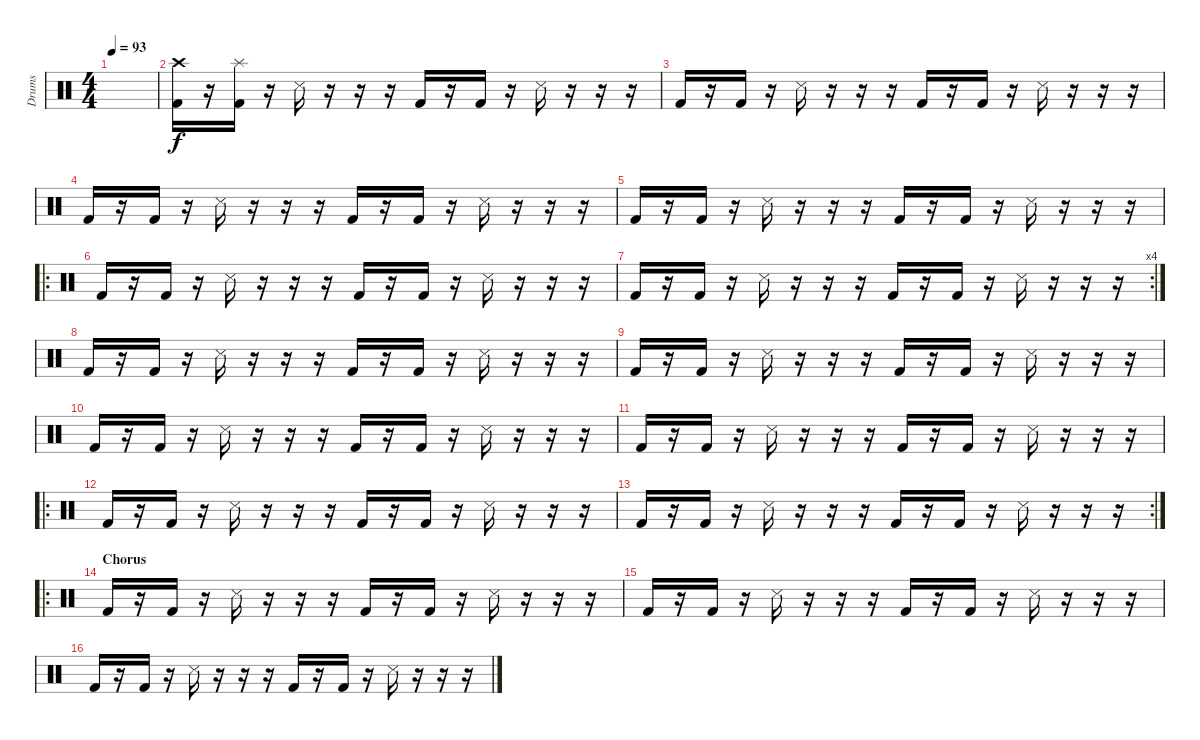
\track ("Drums" "Drums") {instrument percussion}
\staff {score}
\articulation defaults
\ts (4 4)
\tempo 93
\clef neutral
\ks c
|
("Kick (hit) 2" "Crash high (hit)").16 r.16 ("Kick (hit) 2" "Splash (hit)").16 r.16 "Metronome (hit)".16 r.16 r.16 r.16 "Kick (hit) 2".16 r.16 "Kick (hit) 2".16 r.16 "Metronome (hit)".16 r.16 r.16 r.16 |
"Kick (hit) 2".16 r.16 "Kick (hit) 2".16 r.16 "Metronome (hit)".16 r.16 r.16 r.16 "Kick (hit) 2".16 r.16 "Kick (hit) 2".16 r.16 "Metronome (hit)".16 r.16 r.16 r.16 |
"Kick (hit) 2".16 r.16 "Kick (hit) 2".16 r.16 "Metronome (hit)".16 r.16 r.16 r.16 "Kick (hit) 2".16 r.16 "Kick (hit) 2".16 r.16 "Metronome (hit)".16 r.16 r.16 r.16 |
"Kick (hit) 2".16 r.16 "Kick (hit) 2".16 r.16 "Metronome (hit)".16 r.16 r.16 r.16 "Kick (hit) 2".16 r.16 "Kick (hit) 2".16 r.16 "Metronome (hit)".16 r.16 r.16 r.16 |
\ro "Kick (hit) 2".16
r.16 "Kick (hit) 2".16 r.16 "Metronome (hit)".16 r.16 r.16 r.16 "Kick (hit) 2".16 r.16 "Kick (hit) 2".16 r.16 "Metronome (hit)".16 r.16 r.16 r.16 |
\rc 4 "Kick (hit) 2".16
r.16 "Kick (hit) 2".16 r.16 "Metronome (hit)".16 r.16 r.16 r.16 "Kick (hit) 2".16 r.16 "Kick (hit) 2".16 r.16 "Metronome (hit)".16 r.16 r.16 r.16 |
"Kick (hit) 2".16 r.16 "Kick (hit) 2".16 r.16 "Metronome (hit)".16 r.16 r.16 r.16 "Kick (hit) 2".16 r.16 "Kick (hit) 2".16 r.16 "Metronome (hit)".16 r.16 r.16 r.16 |
"Kick (hit) 2".16 r.16 "Kick (hit) 2".16 r.16 "Metronome (hit)".16 r.16 r.16 r.16 "Kick (hit) 2".16 r.16 "Kick (hit) 2".16 r.16 "Metronome (hit)".16 r.16 r.16 r.16 |
"Kick (hit) 2".16 r.16 "Kick (hit) 2".16 r.16 "Metronome (hit)".16 r.16 r.16 r.16 "Kick (hit) 2".16 r.16 "Kick (hit) 2".16 r.16 "Metronome (hit)".16 r.16 r.16 r.16 |
"Kick (hit) 2".16 r.16 "Kick (hit) 2".16 r.16 "Metronome (hit)".16 r.16 r.16 r.16 "Kick (hit) 2".16 r.16 "Kick (hit) 2".16 r.16 "Metronome (hit)".16 r.16 r.16 r.16 |
\ro "Kick (hit) 2".16
r.16 "Kick (hit) 2".16 r.16 "Metronome (hit)".16 r.16 r.16 r.16 "Kick (hit) 2".16 r.16 "Kick (hit) 2".16 r.16 "Metronome (hit)".16 r.16 r.16 r.16 |
\rc 2 "Kick (hit) 2".16
r.16 "Kick (hit) 2".16 r.16 "Metronome (hit)".16 r.16 r.16 r.16 "Kick (hit) 2".16 r.16 "Kick (hit) 2".16 r.16 "Metronome (hit)".16 r.16 r.16 r.16 |
\ro
\section ("" "Chorus")
"Kick (hit) 2".16 r.16 "Kick (hit) 2".16 r.16 "Metronome (hit)".16 r.16 r.16 r.16 "Kick (hit) 2".16 r.16 "Kick (hit) 2".16 r.16 "Metronome (hit)".16 r.16 r.16 r.16 |
"Kick (hit) 2".16 r.16 "Kick (hit) 2".16 r.16 "Metronome (hit)".16 r.16 r.16 r.16 "Kick (hit) 2".16 r.16 "Kick (hit) 2".16 r.16 "Metronome (hit)".16 r.16 r.16 r.16 |
"Kick (hit) 2".16 r.16 "Kick (hit) 2".16 r.16 "Metronome (hit)".16 r.16 r.16 r.16 "Kick (hit) 2".16 r.16 "Kick (hit) 2".16 r.16 "Metronome (hit)".16 r.16 r.16 r.16
